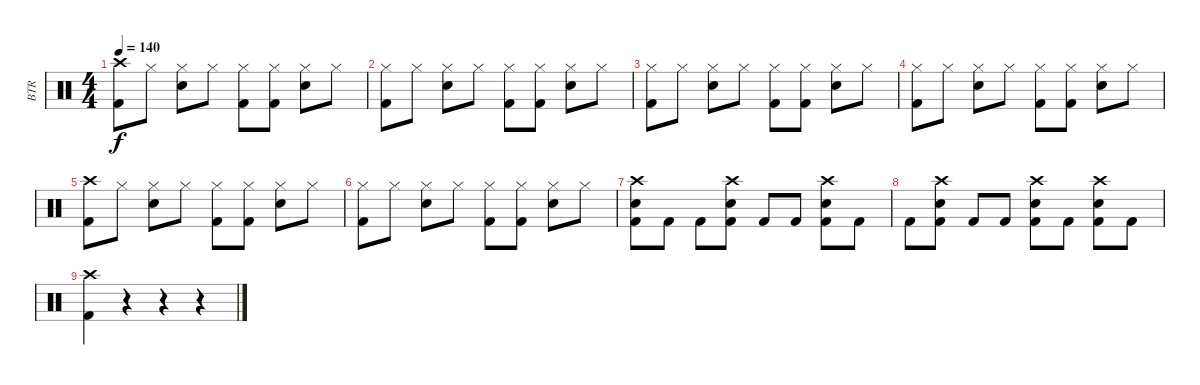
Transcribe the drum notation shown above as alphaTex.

\track ("BTR" "BTR") {instrument percussion}
\staff {score}
\articulation defaults
\ts (4 4)
\tempo 140
\clef neutral
\ks c
("Crash high (hit)" "Kick (hit) 2").8{dy f} "Hi-Hat (closed)".8 ("Hi-Hat (closed)" "Snare (hit) 2").8 "Hi-Hat (closed)".8 ("Hi-Hat (closed)" "Kick (hit) 2").8 ("Hi-Hat (closed)" "Kick (hit) 2").8 ("Hi-Hat (closed)" "Snare (hit) 2").8 "Hi-Hat (closed)".8 |
("Hi-Hat (closed)" "Kick (hit) 2").8 "Hi-Hat (closed)".8 ("Hi-Hat (closed)" "Snare (hit) 2").8 "Hi-Hat (closed)".8 ("Hi-Hat (closed)" "Kick (hit) 2").8 ("Hi-Hat (closed)" "Kick (hit) 2").8 ("Hi-Hat (closed)" "Snare (hit) 2").8 "Hi-Hat (closed)".8 |
("Hi-Hat (closed)" "Kick (hit) 2").8 "Hi-Hat (closed)".8 ("Hi-Hat (closed)" "Snare (hit) 2").8 "Hi-Hat (closed)".8 ("Hi-Hat (closed)" "Kick (hit) 2").8 ("Hi-Hat (closed)" "Kick (hit) 2").8 ("Hi-Hat (closed)" "Snare (hit) 2").8 "Hi-Hat (closed)".8 |
("Hi-Hat (closed)" "Kick (hit) 2").8 "Hi-Hat (closed)".8 ("Hi-Hat (closed)" "Snare (hit) 2").8 "Hi-Hat (closed)".8 ("Hi-Hat (closed)" "Kick (hit) 2").8 ("Hi-Hat (closed)" "Kick (hit) 2").8 ("Hi-Hat (closed)" "Snare (hit) 2").8 "Hi-Hat (closed)".8 |
("Crash high (hit)" "Kick (hit) 2").8 "Hi-Hat (closed)".8 ("Hi-Hat (closed)" "Snare (hit) 2").8 "Hi-Hat (closed)".8 ("Hi-Hat (closed)" "Kick (hit) 2").8 ("Hi-Hat (closed)" "Kick (hit) 2").8 ("Hi-Hat (closed)" "Snare (hit) 2").8 "Hi-Hat (closed)".8 |
("Hi-Hat (closed)" "Kick (hit) 2").8 "Hi-Hat (closed)".8 ("Hi-Hat (closed)" "Snare (hit) 2").8 "Hi-Hat (closed)".8 ("Hi-Hat (closed)" "Kick (hit) 2").8 ("Hi-Hat (closed)" "Kick (hit) 2").8 ("Hi-Hat (closed)" "Snare (hit) 2").8 "Hi-Hat (closed)".8 |
("Crash high (hit)" "Snare (hit) 2" "Kick (hit) 2").8 "Kick (hit) 2".8 "Kick (hit) 2".8 ("Crash high (hit)" "Snare (hit) 2" "Kick (hit) 2").8 "Kick (hit) 2".8 "Kick (hit) 2".8 ("Crash high (hit)" "Snare (hit) 2" "Kick (hit) 2").8 "Kick (hit) 2".8 |
"Kick (hit) 2".8 ("Crash high (hit)" "Snare (hit) 2" "Kick (hit) 2").8 "Kick (hit) 2".8 "Kick (hit) 2".8 ("Crash high (hit)" "Snare (hit) 2" "Kick (hit) 2").8 "Kick (hit) 2".8 ("Crash high (hit)" "Snare (hit) 2" "Kick (hit) 2").8 "Kick (hit) 2".8 |
("Crash high (hit)" "Kick (hit) 2").4 r.4 r.4 r.4
